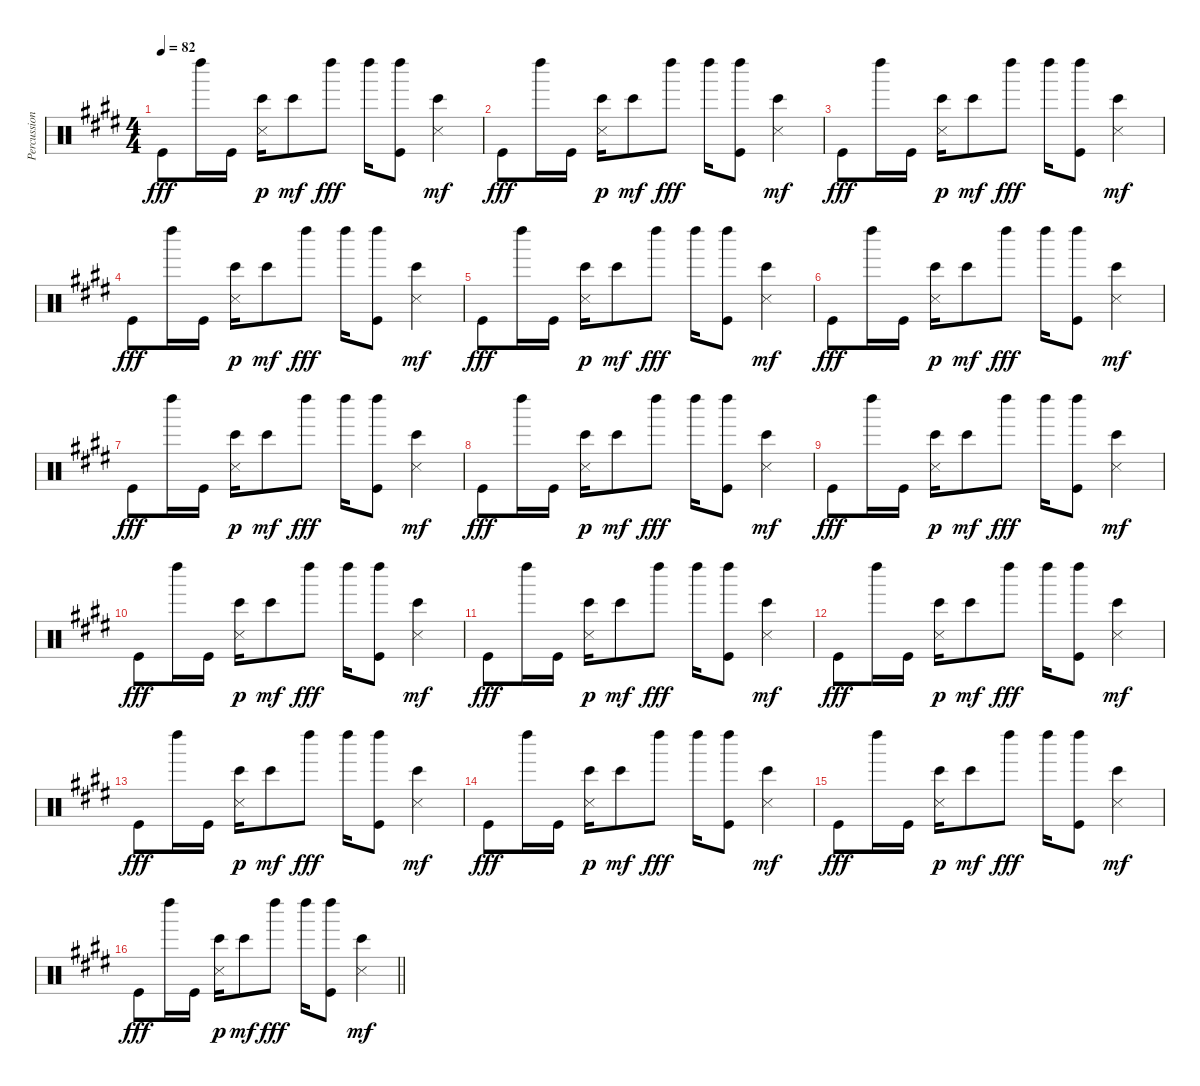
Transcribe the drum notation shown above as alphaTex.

\track ("Percussions" "Percussion") {instrument percussion}
\staff {score}
\articulation defaults
\ts (4 4)
\tempo 82
\clef neutral
\ks e "Kick (hit)".8{dy fff} "Left Maraca (hit)".16 "Kick (hit)".16
("Bongo High (hit)" "Metronome (hit)").16{dy p} "Bongo High (hit)".8{dy mf} "Left Maraca (hit)".8{dy fff} "Left Maraca (hit)".16 ("Left Maraca (hit)" "Kick (hit)").8 ("Bongo High (hit)" "Metronome (hit)").4{dy mf} |
"Kick (hit)".8{dy fff} "Left Maraca (hit)".16 "Kick (hit)".16 ("Bongo High (hit)" "Metronome (hit)").16{dy p} "Bongo High (hit)".8{dy mf} "Left Maraca (hit)".8{dy fff} "Left Maraca (hit)".16 ("Left Maraca (hit)" "Kick (hit)").8 ("Bongo High (hit)" "Metronome (hit)").4{dy mf} |
"Kick (hit)".8{dy fff} "Left Maraca (hit)".16 "Kick (hit)".16 ("Bongo High (hit)" "Metronome (hit)").16{dy p} "Bongo High (hit)".8{dy mf} "Left Maraca (hit)".8{dy fff} "Left Maraca (hit)".16 ("Left Maraca (hit)" "Kick (hit)").8 ("Bongo High (hit)" "Metronome (hit)").4{dy mf} |
"Kick (hit)".8{dy fff} "Left Maraca (hit)".16 "Kick (hit)".16 ("Bongo High (hit)" "Metronome (hit)").16{dy p} "Bongo High (hit)".8{dy mf} "Left Maraca (hit)".8{dy fff} "Left Maraca (hit)".16 ("Left Maraca (hit)" "Kick (hit)").8 ("Bongo High (hit)" "Metronome (hit)").4{dy mf} |
"Kick (hit)".8{dy fff} "Left Maraca (hit)".16 "Kick (hit)".16 ("Bongo High (hit)" "Metronome (hit)").16{dy p} "Bongo High (hit)".8{dy mf} "Left Maraca (hit)".8{dy fff} "Left Maraca (hit)".16 ("Left Maraca (hit)" "Kick (hit)").8 ("Bongo High (hit)" "Metronome (hit)").4{dy mf} |
"Kick (hit)".8{dy fff} "Left Maraca (hit)".16 "Kick (hit)".16 ("Bongo High (hit)" "Metronome (hit)").16{dy p} "Bongo High (hit)".8{dy mf} "Left Maraca (hit)".8{dy fff} "Left Maraca (hit)".16 ("Left Maraca (hit)" "Kick (hit)").8 ("Bongo High (hit)" "Metronome (hit)").4{dy mf} |
"Kick (hit)".8{dy fff} "Left Maraca (hit)".16 "Kick (hit)".16 ("Bongo High (hit)" "Metronome (hit)").16{dy p} "Bongo High (hit)".8{dy mf} "Left Maraca (hit)".8{dy fff} "Left Maraca (hit)".16 ("Left Maraca (hit)" "Kick (hit)").8 ("Bongo High (hit)" "Metronome (hit)").4{dy mf} |
"Kick (hit)".8{dy fff} "Left Maraca (hit)".16 "Kick (hit)".16 ("Bongo High (hit)" "Metronome (hit)").16{dy p} "Bongo High (hit)".8{dy mf} "Left Maraca (hit)".8{dy fff} "Left Maraca (hit)".16 ("Left Maraca (hit)" "Kick (hit)").8 ("Bongo High (hit)" "Metronome (hit)").4{dy mf} |
"Kick (hit)".8{dy fff} "Left Maraca (hit)".16 "Kick (hit)".16 ("Bongo High (hit)" "Metronome (hit)").16{dy p} "Bongo High (hit)".8{dy mf} "Left Maraca (hit)".8{dy fff} "Left Maraca (hit)".16 ("Left Maraca (hit)" "Kick (hit)").8 ("Bongo High (hit)" "Metronome (hit)").4{dy mf} |
"Kick (hit)".8{dy fff} "Left Maraca (hit)".16 "Kick (hit)".16 ("Bongo High (hit)" "Metronome (hit)").16{dy p} "Bongo High (hit)".8{dy mf} "Left Maraca (hit)".8{dy fff} "Left Maraca (hit)".16 ("Left Maraca (hit)" "Kick (hit)").8 ("Bongo High (hit)" "Metronome (hit)").4{dy mf} |
"Kick (hit)".8{dy fff} "Left Maraca (hit)".16 "Kick (hit)".16 ("Bongo High (hit)" "Metronome (hit)").16{dy p} "Bongo High (hit)".8{dy mf} "Left Maraca (hit)".8{dy fff} "Left Maraca (hit)".16 ("Left Maraca (hit)" "Kick (hit)").8 ("Bongo High (hit)" "Metronome (hit)").4{dy mf} |
"Kick (hit)".8{dy fff} "Left Maraca (hit)".16 "Kick (hit)".16 ("Bongo High (hit)" "Metronome (hit)").16{dy p} "Bongo High (hit)".8{dy mf} "Left Maraca (hit)".8{dy fff} "Left Maraca (hit)".16 ("Left Maraca (hit)" "Kick (hit)").8 ("Bongo High (hit)" "Metronome (hit)").4{dy mf} |
"Kick (hit)".8{dy fff} "Left Maraca (hit)".16 "Kick (hit)".16 ("Bongo High (hit)" "Metronome (hit)").16{dy p} "Bongo High (hit)".8{dy mf} "Left Maraca (hit)".8{dy fff} "Left Maraca (hit)".16 ("Left Maraca (hit)" "Kick (hit)").8 ("Bongo High (hit)" "Metronome (hit)").4{dy mf} |
"Kick (hit)".8{dy fff} "Left Maraca (hit)".16 "Kick (hit)".16 ("Bongo High (hit)" "Metronome (hit)").16{dy p} "Bongo High (hit)".8{dy mf} "Left Maraca (hit)".8{dy fff} "Left Maraca (hit)".16 ("Left Maraca (hit)" "Kick (hit)").8 ("Bongo High (hit)" "Metronome (hit)").4{dy mf} |
"Kick (hit)".8{dy fff} "Left Maraca (hit)".16 "Kick (hit)".16 ("Bongo High (hit)" "Metronome (hit)").16{dy p} "Bongo High (hit)".8{dy mf} "Left Maraca (hit)".8{dy fff} "Left Maraca (hit)".16 ("Left Maraca (hit)" "Kick (hit)").8 ("Bongo High (hit)" "Metronome (hit)").4{dy mf} |
\barLineRight lightlight "Kick (hit)".8{dy fff} "Left Maraca (hit)".16 "Kick (hit)".16
("Bongo High (hit)" "Metronome (hit)").16{dy p} "Bongo High (hit)".8{dy mf} "Left Maraca (hit)".8{dy fff} "Left Maraca (hit)".16 ("Left Maraca (hit)" "Kick (hit)").8 ("Bongo High (hit)" "Metronome (hit)").4{dy mf}
